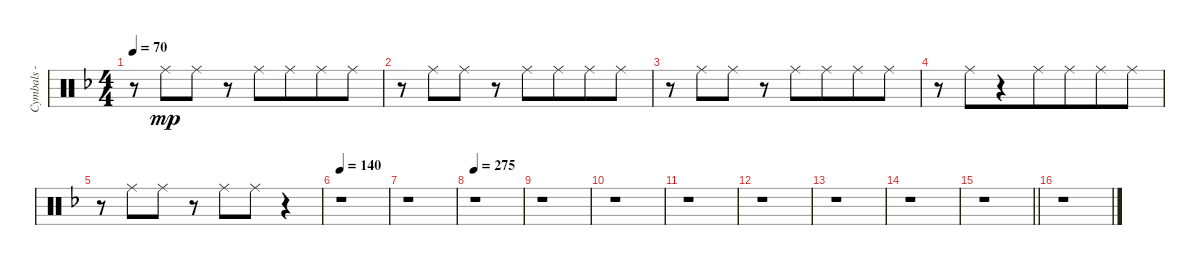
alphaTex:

\track ("Cymbals - ride" "Cymbals - ") {instrument percussion}
\staff {score}
\articulation defaults
\ts (4 4)
\tempo 70
\clef neutral
\ks dminor
r.8{dy mp} "Ride (middle)".8{beam merge} "Ride (middle)".8 r.8 "Ride (middle)".8 "Ride (middle)".8{beam merge} "Ride (middle)".8 "Ride (middle)".8 |
r.8 "Ride (middle)".8{beam merge} "Ride (middle)".8 r.8 "Ride (middle)".8 "Ride (middle)".8{beam merge} "Ride (middle)".8 "Ride (middle)".8 |
r.8 "Ride (middle)".8{beam merge} "Ride (middle)".8 r.8 "Ride (middle)".8 "Ride (middle)".8{beam merge} "Ride (middle)".8 "Ride (middle)".8 |
r.8 "Ride (middle)".8{beam merge} r.4 "Ride (middle)".8 "Ride (middle)".8{beam merge} "Ride (middle)".8 "Ride (middle)".8 |
r.8 "Ride (middle)".8{beam merge} "Ride (middle)".8 r.8 "Ride (middle)".8 "Ride (middle)".8 r.4 |
\tempo 140
r.1 |
r.1 |
\tempo 275
r.1 |
r.1 |
r.1 |
r.1 |
r.1 |
r.1 |
r.1 |
\barLineRight lightlight
r.1 |
r.1
